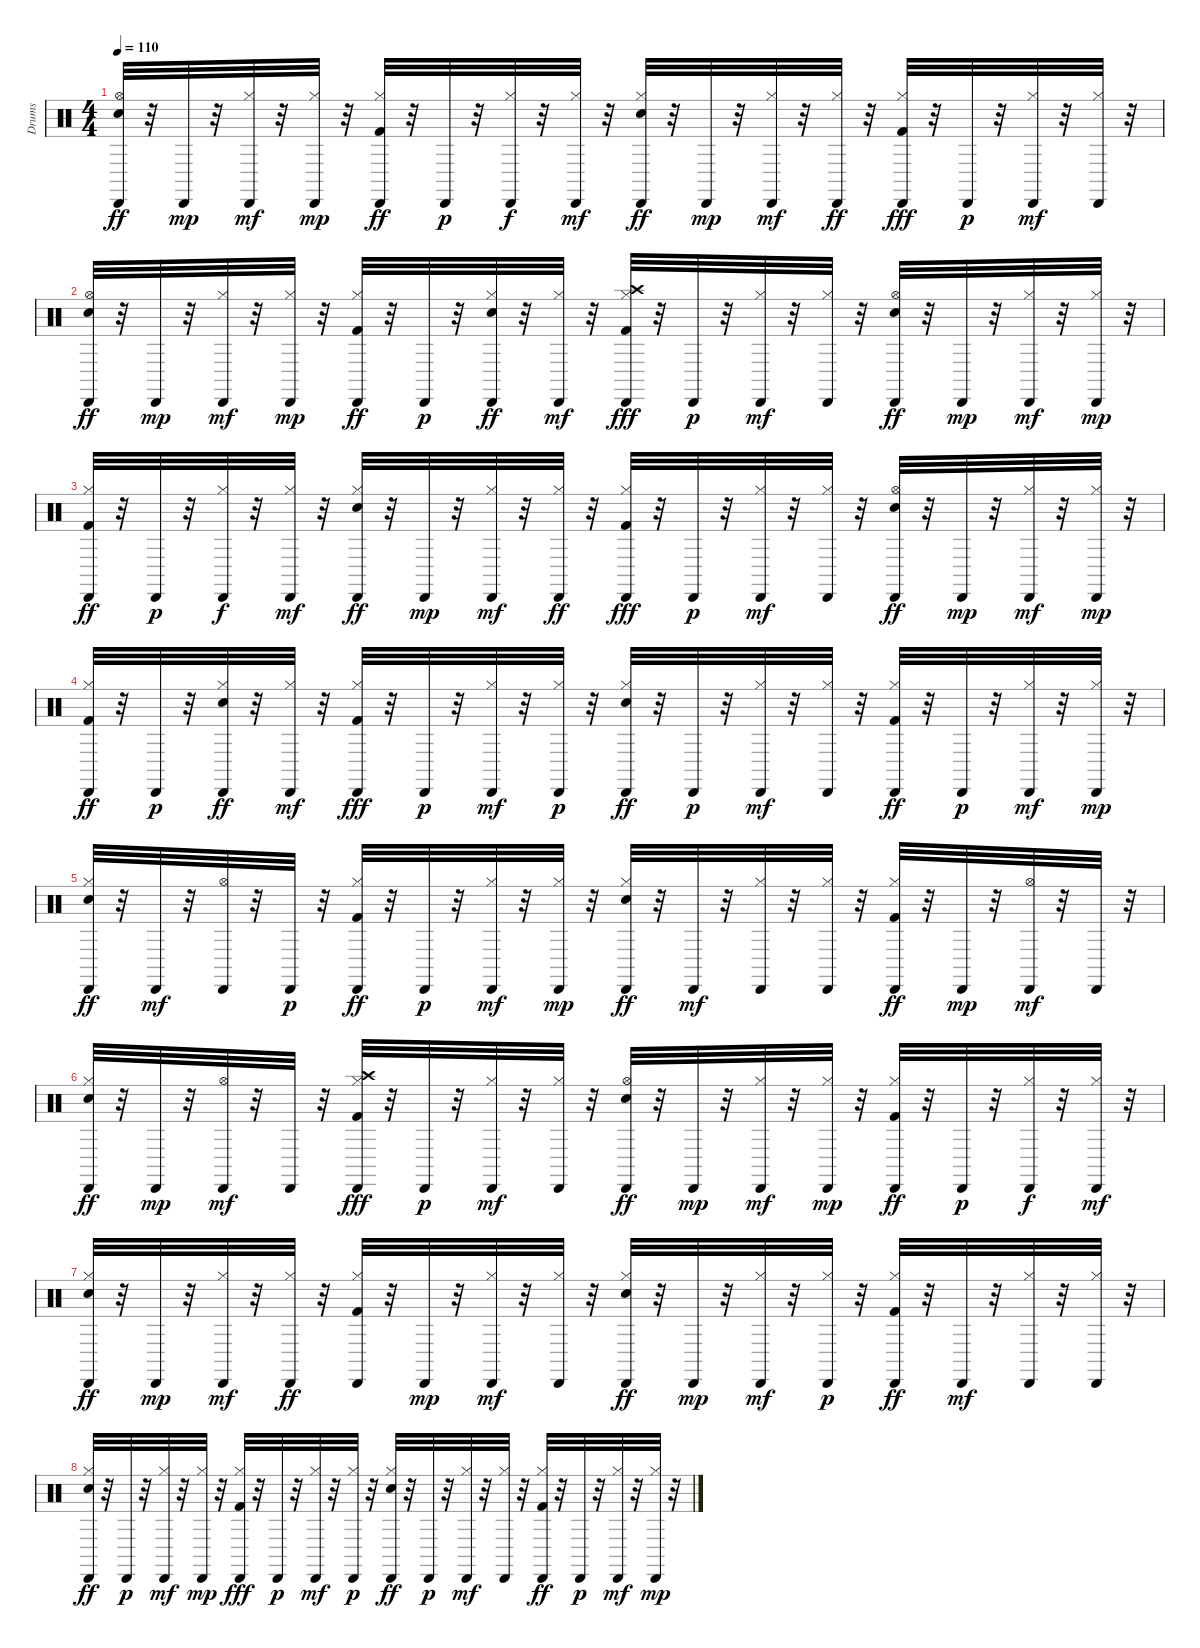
\track ("Drums" "Drums") {instrument percussion}
\staff {score}
\articulation defaults
\ts (4 4)
\tempo 110
\clef neutral
\ks c
("Hi-Hat (open)" "Cabasa (hit)" "Snare (hit) 2").32{dy ff} r.32 "Cabasa (hit)".32{dy mp} r.32 ("Cabasa (hit)" "Hi-Hat (closed)").32{dy mf} r.32 ("Cabasa (hit)" "Hi-Hat (closed)").32{dy mp} r.32 ("Cabasa (hit)" "Hi-Hat (closed)" "Kick (hit) 2").32{dy ff} r.32 "Cabasa (hit)".32{dy p} r.32 ("Cabasa (hit)" "Hi-Hat (closed)").32{dy f} r.32 ("Cabasa (hit)" "Hi-Hat (closed)").32{dy mf} r.32 ("Cabasa (hit)" "Hi-Hat (closed)" "Snare (hit) 2").32{dy ff} r.32 "Cabasa (hit)".32{dy mp} r.32 ("Cabasa (hit)" "Hi-Hat (closed)").32{dy mf} r.32 ("Cabasa (hit)" "Hi-Hat (closed)").32{dy ff} r.32 ("Cabasa (hit)" "Hi-Hat (closed)" "Kick (hit) 2").32{dy fff} r.32 "Cabasa (hit)".32{dy p} r.32 ("Cabasa (hit)" "Hi-Hat (closed)").32{dy mf} r.32 ("Cabasa (hit)" "Hi-Hat (closed)").32 r.32 |
("Hi-Hat (open)" "Cabasa (hit)" "Snare (hit) 2").32{dy ff} r.32 "Cabasa (hit)".32{dy mp} r.32 ("Cabasa (hit)" "Hi-Hat (closed)").32{dy mf} r.32 ("Cabasa (hit)" "Hi-Hat (closed)").32{dy mp} r.32 ("Cabasa (hit)" "Hi-Hat (closed)" "Kick (hit) 2").32{dy ff} r.32 "Cabasa (hit)".32{dy p} r.32 ("Cabasa (hit)" "Hi-Hat (closed)" "Snare (hit) 2").32{dy ff} r.32 ("Cabasa (hit)" "Hi-Hat (closed)").32{dy mf} r.32 ("Cabasa (hit)" "Crash high (hit)" "Hi-Hat (closed)" "Kick (hit) 2").32{dy fff} r.32 "Cabasa (hit)".32{dy p} r.32 ("Cabasa (hit)" "Hi-Hat (closed)").32{dy mf} r.32 ("Cabasa (hit)" "Hi-Hat (closed)").32 r.32 ("Hi-Hat (open)" "Cabasa (hit)" "Snare (hit) 2").32{dy ff} r.32 "Cabasa (hit)".32{dy mp} r.32 ("Cabasa (hit)" "Hi-Hat (closed)").32{dy mf} r.32 ("Cabasa (hit)" "Hi-Hat (closed)").32{dy mp} r.32 |
("Cabasa (hit)" "Hi-Hat (closed)" "Kick (hit) 2").32{dy ff} r.32 "Cabasa (hit)".32{dy p} r.32 ("Cabasa (hit)" "Hi-Hat (closed)").32{dy f} r.32 ("Cabasa (hit)" "Hi-Hat (closed)").32{dy mf} r.32 ("Cabasa (hit)" "Hi-Hat (closed)" "Snare (hit) 2").32{dy ff} r.32 "Cabasa (hit)".32{dy mp} r.32 ("Cabasa (hit)" "Hi-Hat (closed)").32{dy mf} r.32 ("Cabasa (hit)" "Hi-Hat (closed)").32{dy ff} r.32 ("Cabasa (hit)" "Hi-Hat (closed)" "Kick (hit) 2").32{dy fff} r.32 "Cabasa (hit)".32{dy p} r.32 ("Cabasa (hit)" "Hi-Hat (closed)").32{dy mf} r.32 ("Cabasa (hit)" "Hi-Hat (closed)").32 r.32 ("Hi-Hat (open)" "Cabasa (hit)" "Snare (hit) 2").32{dy ff} r.32 "Cabasa (hit)".32{dy mp} r.32 ("Cabasa (hit)" "Hi-Hat (closed)").32{dy mf} r.32 ("Cabasa (hit)" "Hi-Hat (closed)").32{dy mp} r.32 |
("Cabasa (hit)" "Hi-Hat (closed)" "Kick (hit) 2").32{dy ff} r.32 "Cabasa (hit)".32{dy p} r.32 ("Cabasa (hit)" "Hi-Hat (closed)" "Snare (hit) 2").32{dy ff} r.32 ("Cabasa (hit)" "Hi-Hat (closed)").32{dy mf} r.32 ("Cabasa (hit)" "Hi-Hat (closed)" "Kick (hit) 2").32{dy fff} r.32 "Cabasa (hit)".32{dy p} r.32 ("Cabasa (hit)" "Hi-Hat (closed)").32{dy mf} r.32 ("Cabasa (hit)" "Hi-Hat (closed)").32{dy p} r.32 ("Cabasa (hit)" "Hi-Hat (closed)" "Snare (hit) 2").32{dy ff} r.32 "Cabasa (hit)".32{dy p} r.32 ("Cabasa (hit)" "Hi-Hat (closed)").32{dy mf} r.32 ("Cabasa (hit)" "Hi-Hat (closed)").32 r.32 ("Cabasa (hit)" "Hi-Hat (closed)" "Kick (hit) 2").32{dy ff} r.32 "Cabasa (hit)".32{dy p} r.32 ("Cabasa (hit)" "Hi-Hat (closed)").32{dy mf} r.32 ("Cabasa (hit)" "Hi-Hat (closed)").32{dy mp} r.32 |
("Cabasa (hit)" "Hi-Hat (closed)" "Snare (hit) 2").32{dy ff} r.32 "Cabasa (hit)".32{dy mf} r.32 ("Hi-Hat (open)" "Cabasa (hit)").32 r.32 "Cabasa (hit)".32{dy p} r.32 ("Cabasa (hit)" "Hi-Hat (closed)" "Kick (hit) 2").32{dy ff} r.32 "Cabasa (hit)".32{dy p} r.32 ("Cabasa (hit)" "Hi-Hat (closed)").32{dy mf} r.32 ("Cabasa (hit)" "Hi-Hat (closed)").32{dy mp} r.32 ("Cabasa (hit)" "Hi-Hat (closed)" "Snare (hit) 2").32{dy ff} r.32 "Cabasa (hit)".32{dy mf} r.32 ("Cabasa (hit)" "Hi-Hat (closed)").32 r.32 ("Cabasa (hit)" "Hi-Hat (closed)").32 r.32 ("Cabasa (hit)" "Hi-Hat (closed)" "Kick (hit) 2").32{dy ff} r.32 "Cabasa (hit)".32{dy mp} r.32 ("Hi-Hat (open)" "Cabasa (hit)").32{dy mf} r.32 "Cabasa (hit)".32 r.32 |
("Cabasa (hit)" "Hi-Hat (closed)" "Snare (hit) 2").32{dy ff} r.32 "Cabasa (hit)".32{dy mp} r.32 ("Hi-Hat (open)" "Cabasa (hit)").32{dy mf} r.32 "Cabasa (hit)".32 r.32 ("Cabasa (hit)" "Crash high (hit)" "Hi-Hat (closed)" "Kick (hit) 2").32{dy fff} r.32 "Cabasa (hit)".32{dy p} r.32 ("Cabasa (hit)" "Hi-Hat (closed)").32{dy mf} r.32 ("Cabasa (hit)" "Hi-Hat (closed)").32 r.32 ("Hi-Hat (open)" "Cabasa (hit)" "Snare (hit) 2").32{dy ff} r.32 "Cabasa (hit)".32{dy mp} r.32 ("Cabasa (hit)" "Hi-Hat (closed)").32{dy mf} r.32 ("Cabasa (hit)" "Hi-Hat (closed)").32{dy mp} r.32 ("Cabasa (hit)" "Hi-Hat (closed)" "Kick (hit) 2").32{dy ff} r.32 "Cabasa (hit)".32{dy p} r.32 ("Cabasa (hit)" "Hi-Hat (closed)").32{dy f} r.32 ("Cabasa (hit)" "Hi-Hat (closed)").32{dy mf} r.32 |
("Cabasa (hit)" "Hi-Hat (closed)" "Snare (hit) 2").32{dy ff} r.32 "Cabasa (hit)".32{dy mp} r.32 ("Cabasa (hit)" "Hi-Hat (closed)").32{dy mf} r.32 ("Cabasa (hit)" "Hi-Hat (closed)").32{dy ff} r.32 ("Cabasa (hit)" "Hi-Hat (closed)" "Kick (hit) 2").32 r.32 "Cabasa (hit)".32{dy mp} r.32 ("Cabasa (hit)" "Hi-Hat (closed)").32{dy mf} r.32 ("Cabasa (hit)" "Hi-Hat (closed)").32 r.32 ("Cabasa (hit)" "Hi-Hat (closed)" "Snare (hit) 2").32{dy ff} r.32 "Cabasa (hit)".32{dy mp} r.32 ("Cabasa (hit)" "Hi-Hat (closed)").32{dy mf} r.32 ("Cabasa (hit)" "Hi-Hat (closed)").32{dy p} r.32 ("Cabasa (hit)" "Hi-Hat (closed)" "Kick (hit) 2").32{dy ff} r.32 "Cabasa (hit)".32{dy mf} r.32 ("Cabasa (hit)" "Hi-Hat (closed)").32 r.32 ("Cabasa (hit)" "Hi-Hat (closed)").32 r.32 |
("Cabasa (hit)" "Hi-Hat (closed)" "Snare (hit) 2").32{dy ff} r.32 "Cabasa (hit)".32{dy p} r.32 ("Cabasa (hit)" "Hi-Hat (closed)").32{dy mf} r.32 ("Cabasa (hit)" "Hi-Hat (closed)").32{dy mp} r.32 ("Cabasa (hit)" "Hi-Hat (closed)" "Kick (hit) 2").32{dy fff} r.32 "Cabasa (hit)".32{dy p} r.32 ("Cabasa (hit)" "Hi-Hat (closed)").32{dy mf} r.32 ("Cabasa (hit)" "Hi-Hat (closed)").32{dy p} r.32 ("Cabasa (hit)" "Hi-Hat (closed)" "Snare (hit) 2").32{dy ff} r.32 "Cabasa (hit)".32{dy p} r.32 ("Cabasa (hit)" "Hi-Hat (closed)").32{dy mf} r.32 ("Cabasa (hit)" "Hi-Hat (closed)").32 r.32 ("Cabasa (hit)" "Hi-Hat (closed)" "Kick (hit) 2").32{dy ff} r.32 "Cabasa (hit)".32{dy p} r.32 ("Cabasa (hit)" "Hi-Hat (closed)").32{dy mf} r.32 ("Cabasa (hit)" "Hi-Hat (closed)").32{dy mp} r.32
